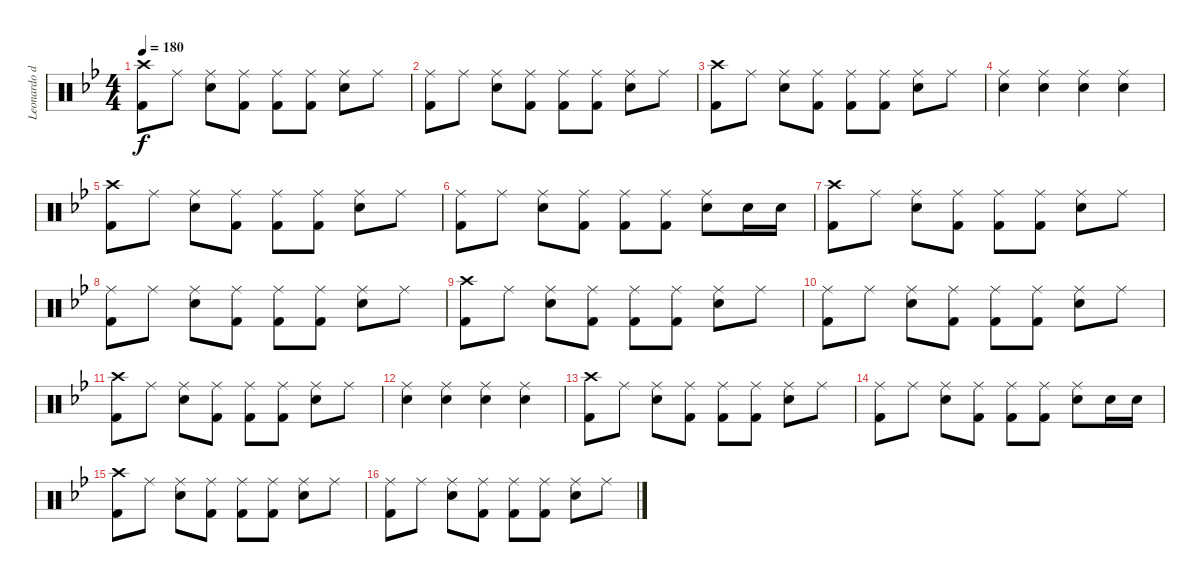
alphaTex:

\track ("Leonardo de Cecco" "Leonardo d") {instrument percussion}
\staff {score}
\articulation defaults
\ts (4 4)
\tempo 180
\clef neutral
\ks bb
("Crash high (hit)" "Kick (hit) 2").8{dy f} "Ride (middle)".8 ("Ride (middle)" "Snare (hit) 2").8 ("Ride (middle)" "Kick (hit) 2").8 ("Ride (middle)" "Kick (hit) 2").8 ("Ride (middle)" "Kick (hit) 2").8 ("Ride (middle)" "Snare (hit) 2").8 "Ride (middle)".8 |
("Ride (middle)" "Kick (hit) 2").8 "Ride (middle)".8 ("Ride (middle)" "Snare (hit) 2").8 ("Ride (middle)" "Kick (hit) 2").8 ("Ride (middle)" "Kick (hit) 2").8 ("Ride (middle)" "Kick (hit) 2").8 ("Ride (middle)" "Snare (hit) 2").8 "Ride (middle)".8 |
("Crash high (hit)" "Kick (hit) 2").8 "Ride (middle)".8 ("Ride (middle)" "Snare (hit) 2").8 ("Ride (middle)" "Kick (hit) 2").8 ("Ride (middle)" "Kick (hit) 2").8 ("Ride (middle)" "Kick (hit) 2").8 ("Ride (middle)" "Snare (hit) 2").8 "Ride (middle)".8 |
("Ride (middle)" "Snare (hit) 2").4 ("Ride (middle)" "Snare (hit) 2").4 ("Ride (middle)" "Snare (hit) 2").4 ("Ride (middle)" "Snare (hit) 2").4 |
("Crash high (hit)" "Kick (hit) 2").8 "Ride (middle)".8 ("Ride (middle)" "Snare (hit) 2").8 ("Ride (middle)" "Kick (hit) 2").8 ("Ride (middle)" "Kick (hit) 2").8 ("Ride (middle)" "Kick (hit) 2").8 ("Ride (middle)" "Snare (hit) 2").8 "Ride (middle)".8 |
("Ride (middle)" "Kick (hit) 2").8 "Ride (middle)".8 ("Ride (middle)" "Snare (hit) 2").8 ("Ride (middle)" "Kick (hit) 2").8 ("Ride (middle)" "Kick (hit) 2").8 ("Ride (middle)" "Kick (hit) 2").8 ("Ride (middle)" "Snare (hit) 2").8 "Snare (hit) 2".16 "Snare (hit) 2".16 |
("Crash high (hit)" "Kick (hit) 2").8 "Ride (middle)".8 ("Ride (middle)" "Snare (hit) 2").8 ("Ride (middle)" "Kick (hit) 2").8 ("Ride (middle)" "Kick (hit) 2").8 ("Ride (middle)" "Kick (hit) 2").8 ("Ride (middle)" "Snare (hit) 2").8 "Ride (middle)".8 |
("Ride (middle)" "Kick (hit) 2").8 "Ride (middle)".8 ("Ride (middle)" "Snare (hit) 2").8 ("Ride (middle)" "Kick (hit) 2").8 ("Ride (middle)" "Kick (hit) 2").8 ("Ride (middle)" "Kick (hit) 2").8 ("Ride (middle)" "Snare (hit) 2").8 "Ride (middle)".8 |
("Crash high (hit)" "Kick (hit) 2").8 "Ride (middle)".8 ("Ride (middle)" "Snare (hit) 2").8 ("Ride (middle)" "Kick (hit) 2").8 ("Ride (middle)" "Kick (hit) 2").8 ("Ride (middle)" "Kick (hit) 2").8 ("Ride (middle)" "Snare (hit) 2").8 "Ride (middle)".8 |
("Ride (middle)" "Kick (hit) 2").8 "Ride (middle)".8 ("Ride (middle)" "Snare (hit) 2").8 ("Ride (middle)" "Kick (hit) 2").8 ("Ride (middle)" "Kick (hit) 2").8 ("Ride (middle)" "Kick (hit) 2").8 ("Ride (middle)" "Snare (hit) 2").8 "Ride (middle)".8 |
("Crash high (hit)" "Kick (hit) 2").8 "Ride (middle)".8 ("Ride (middle)" "Snare (hit) 2").8 ("Ride (middle)" "Kick (hit) 2").8 ("Ride (middle)" "Kick (hit) 2").8 ("Ride (middle)" "Kick (hit) 2").8 ("Ride (middle)" "Snare (hit) 2").8 "Ride (middle)".8 |
("Ride (middle)" "Snare (hit) 2").4 ("Ride (middle)" "Snare (hit) 2").4 ("Ride (middle)" "Snare (hit) 2").4 ("Ride (middle)" "Snare (hit) 2").4 |
("Crash high (hit)" "Kick (hit) 2").8 "Ride (middle)".8 ("Ride (middle)" "Snare (hit) 2").8 ("Ride (middle)" "Kick (hit) 2").8 ("Ride (middle)" "Kick (hit) 2").8 ("Ride (middle)" "Kick (hit) 2").8 ("Ride (middle)" "Snare (hit) 2").8 "Ride (middle)".8 |
("Ride (middle)" "Kick (hit) 2").8 "Ride (middle)".8 ("Ride (middle)" "Snare (hit) 2").8 ("Ride (middle)" "Kick (hit) 2").8 ("Ride (middle)" "Kick (hit) 2").8 ("Ride (middle)" "Kick (hit) 2").8 ("Ride (middle)" "Snare (hit) 2").8 "Snare (hit) 2".16 "Snare (hit) 2".16 |
("Crash high (hit)" "Kick (hit) 2").8 "Ride (middle)".8 ("Ride (middle)" "Snare (hit) 2").8 ("Ride (middle)" "Kick (hit) 2").8 ("Ride (middle)" "Kick (hit) 2").8 ("Ride (middle)" "Kick (hit) 2").8 ("Ride (middle)" "Snare (hit) 2").8 "Ride (middle)".8 |
("Ride (middle)" "Kick (hit) 2").8 "Ride (middle)".8 ("Ride (middle)" "Snare (hit) 2").8 ("Ride (middle)" "Kick (hit) 2").8 ("Ride (middle)" "Kick (hit) 2").8 ("Ride (middle)" "Kick (hit) 2").8 ("Ride (middle)" "Snare (hit) 2").8 "Ride (middle)".8
